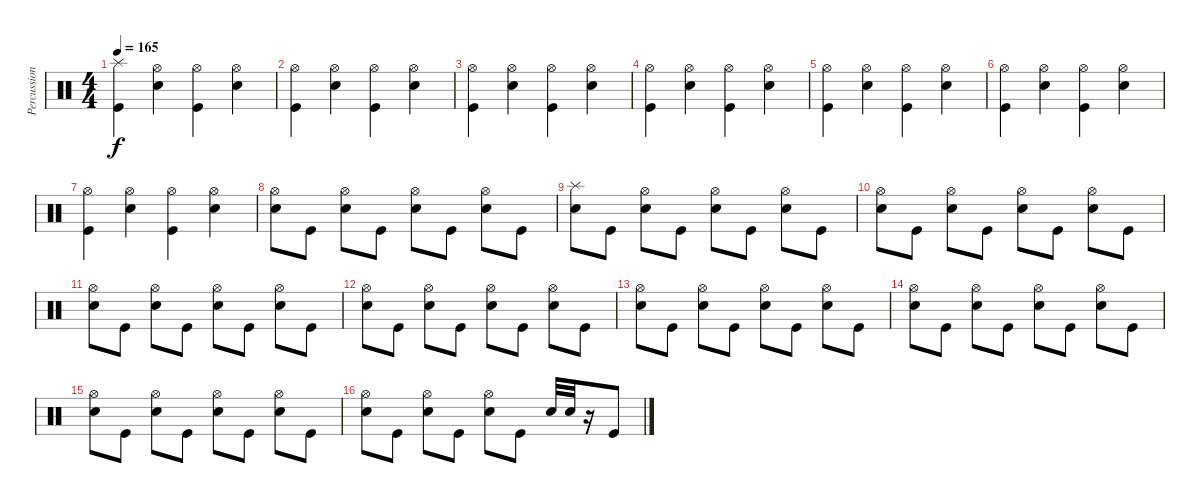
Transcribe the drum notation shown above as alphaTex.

\track ("Percussion" "Percussion") {instrument percussion}
\staff {score}
\articulation defaults
\ts (4 4)
\tempo 165
\clef neutral
\ks c
("Splash (hit)" "Kick (hit)").4{dy f} ("Hi-Hat (open)" "Snare (hit) 2").4 ("Hi-Hat (open)" "Kick (hit)").4 ("Hi-Hat (open)" "Snare (hit) 2").4 |
("Hi-Hat (open)" "Kick (hit)").4 ("Hi-Hat (open)" "Snare (hit) 2").4 ("Hi-Hat (open)" "Kick (hit)").4 ("Hi-Hat (open)" "Snare (hit) 2").4 |
("Hi-Hat (open)" "Kick (hit)").4 ("Hi-Hat (open)" "Snare (hit) 2").4 ("Hi-Hat (open)" "Kick (hit)").4 ("Hi-Hat (open)" "Snare (hit) 2").4 |
("Hi-Hat (open)" "Kick (hit)").4 ("Hi-Hat (open)" "Snare (hit) 2").4 ("Hi-Hat (open)" "Kick (hit)").4 ("Hi-Hat (open)" "Snare (hit) 2").4 |
("Hi-Hat (open)" "Kick (hit)").4 ("Hi-Hat (open)" "Snare (hit) 2").4 ("Hi-Hat (open)" "Kick (hit)").4 ("Hi-Hat (open)" "Snare (hit) 2").4 |
("Hi-Hat (open)" "Kick (hit)").4 ("Hi-Hat (open)" "Snare (hit) 2").4 ("Hi-Hat (open)" "Kick (hit)").4 ("Hi-Hat (open)" "Snare (hit) 2").4 |
("Hi-Hat (open)" "Kick (hit)").4 ("Hi-Hat (open)" "Snare (hit) 2").4 ("Hi-Hat (open)" "Kick (hit)").4 ("Hi-Hat (open)" "Snare (hit) 2").4 |
("Hi-Hat (open)" "Snare (hit) 2").8 "Kick (hit)".8 ("Hi-Hat (open)" "Snare (hit) 2").8 "Kick (hit)".8 ("Hi-Hat (open)" "Snare (hit) 2").8 "Kick (hit)".8 ("Hi-Hat (open)" "Snare (hit) 2").8 "Kick (hit)".8 |
("Splash (hit)" "Snare (hit) 2").8 "Kick (hit)".8 ("Hi-Hat (open)" "Snare (hit) 2").8 "Kick (hit)".8 ("Hi-Hat (open)" "Snare (hit) 2").8 "Kick (hit)".8 ("Hi-Hat (open)" "Snare (hit) 2").8 "Kick (hit)".8 |
("Hi-Hat (open)" "Snare (hit) 2").8 "Kick (hit)".8 ("Hi-Hat (open)" "Snare (hit) 2").8 "Kick (hit)".8 ("Hi-Hat (open)" "Snare (hit) 2").8 "Kick (hit)".8 ("Hi-Hat (open)" "Snare (hit) 2").8 "Kick (hit)".8 |
("Hi-Hat (open)" "Snare (hit) 2").8 "Kick (hit)".8 ("Hi-Hat (open)" "Snare (hit) 2").8 "Kick (hit)".8 ("Hi-Hat (open)" "Snare (hit) 2").8 "Kick (hit)".8 ("Hi-Hat (open)" "Snare (hit) 2").8 "Kick (hit)".8 |
("Hi-Hat (open)" "Snare (hit) 2").8 "Kick (hit)".8 ("Hi-Hat (open)" "Snare (hit) 2").8 "Kick (hit)".8 ("Hi-Hat (open)" "Snare (hit) 2").8 "Kick (hit)".8 ("Hi-Hat (open)" "Snare (hit) 2").8 "Kick (hit)".8 |
("Hi-Hat (open)" "Snare (hit) 2").8 "Kick (hit)".8 ("Hi-Hat (open)" "Snare (hit) 2").8 "Kick (hit)".8 ("Hi-Hat (open)" "Snare (hit) 2").8 "Kick (hit)".8 ("Hi-Hat (open)" "Snare (hit) 2").8 "Kick (hit)".8 |
("Hi-Hat (open)" "Snare (hit) 2").8 "Kick (hit)".8 ("Hi-Hat (open)" "Snare (hit) 2").8 "Kick (hit)".8 ("Hi-Hat (open)" "Snare (hit) 2").8 "Kick (hit)".8 ("Hi-Hat (open)" "Snare (hit) 2").8 "Kick (hit)".8 |
("Hi-Hat (open)" "Snare (hit) 2").8 "Kick (hit)".8 ("Hi-Hat (open)" "Snare (hit) 2").8 "Kick (hit)".8 ("Hi-Hat (open)" "Snare (hit) 2").8 "Kick (hit)".8 ("Hi-Hat (open)" "Snare (hit) 2").8 "Kick (hit)".8 |
("Hi-Hat (open)" "Snare (hit) 2").8 "Kick (hit)".8 ("Hi-Hat (open)" "Snare (hit) 2").8 "Kick (hit)".8 ("Hi-Hat (open)" "Snare (hit) 2").8 "Kick (hit)".8 "Snare (hit) 2".32 "Snare (hit) 2".32 r.16 "Kick (hit)".8
